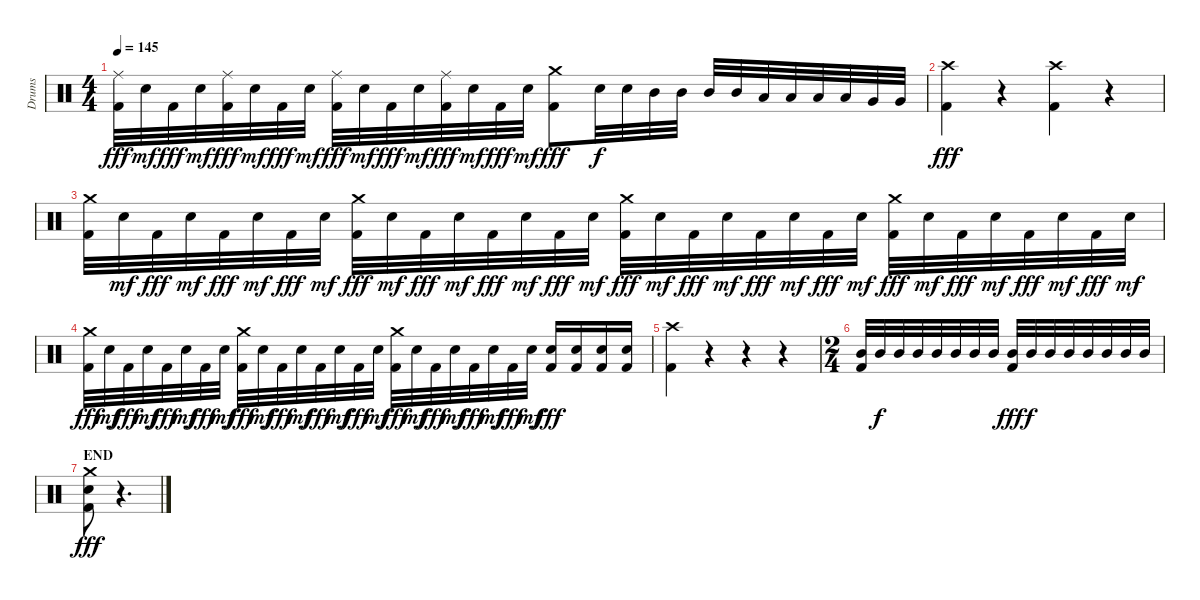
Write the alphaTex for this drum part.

\track ("Drums" "Drums") {instrument percussion}
\staff {score}
\articulation defaults
\ts (4 4)
\tempo 145
\clef neutral
\ks c
("Ride (middle)" "Kick (hit) 2").32{dy fff} "Electric Snare (hit)".32{dy mf} "Kick (hit) 2".32{dy fff} "Electric Snare (hit)".32{dy mf} ("Ride (middle)" "Kick (hit) 2").32{dy fff} "Electric Snare (hit)".32{dy mf} "Kick (hit) 2".32{dy fff} "Electric Snare (hit)".32{dy mf} ("Ride (middle)" "Kick (hit) 2").32{dy fff} "Electric Snare (hit)".32{dy mf} "Kick (hit) 2".32{dy fff} "Electric Snare (hit)".32{dy mf} ("Ride (middle)" "Kick (hit) 2").32{dy fff} "Electric Snare (hit)".32{dy mf} "Kick (hit) 2".32{dy fff} "Electric Snare (hit)".32{dy mf} ("Crash medium (hit)" "Kick (hit) 2").8{dy fff} "Electric Snare (hit)".32{dy f} "Electric Snare (hit)".32 "Mid Tom (hit)".32 "Mid Tom (hit)".32 "Mid Tom (hit)".32 "Mid Tom (hit)".32 "Low Tom (hit)".32 "Low Tom (hit)".32 "Low Tom (hit)".32 "Low Tom (hit)".32 "Very Low Tom (hit)".32 "Very Low Tom (hit)".32 |
("Crash high (hit)" "Kick (hit) 2").4{dy fff} r.4 ("Crash high (hit)" "Kick (hit) 2").4 r.4 |
("Crash medium (hit)" "Kick (hit) 2").32 "Electric Snare (hit)".32{dy mf} "Kick (hit) 2".32{dy fff} "Electric Snare (hit)".32{dy mf} "Kick (hit) 2".32{dy fff} "Electric Snare (hit)".32{dy mf} "Kick (hit) 2".32{dy fff} "Electric Snare (hit)".32{dy mf} ("Crash medium (hit)" "Kick (hit) 2").32{dy fff} "Electric Snare (hit)".32{dy mf} "Kick (hit) 2".32{dy fff} "Electric Snare (hit)".32{dy mf} "Kick (hit) 2".32{dy fff} "Electric Snare (hit)".32{dy mf} "Kick (hit) 2".32{dy fff} "Electric Snare (hit)".32{dy mf} ("Crash medium (hit)" "Kick (hit) 2").32{dy fff} "Electric Snare (hit)".32{dy mf} "Kick (hit) 2".32{dy fff} "Electric Snare (hit)".32{dy mf} "Kick (hit) 2".32{dy fff} "Electric Snare (hit)".32{dy mf} "Kick (hit) 2".32{dy fff} "Electric Snare (hit)".32{dy mf} ("Crash medium (hit)" "Kick (hit) 2").32{dy fff} "Electric Snare (hit)".32{dy mf} "Kick (hit) 2".32{dy fff} "Electric Snare (hit)".32{dy mf} "Kick (hit) 2".32{dy fff} "Electric Snare (hit)".32{dy mf} "Kick (hit) 2".32{dy fff} "Electric Snare (hit)".32{dy mf} |
("Crash medium (hit)" "Kick (hit) 2").32{dy fff} "Electric Snare (hit)".32{dy mf} "Kick (hit) 2".32{dy fff} "Electric Snare (hit)".32{dy mf} "Kick (hit) 2".32{dy fff} "Electric Snare (hit)".32{dy mf} "Kick (hit) 2".32{dy fff} "Electric Snare (hit)".32{dy mf} ("Crash medium (hit)" "Kick (hit) 2").32{dy fff} "Electric Snare (hit)".32{dy mf} "Kick (hit) 2".32{dy fff} "Electric Snare (hit)".32{dy mf} "Kick (hit) 2".32{dy fff} "Electric Snare (hit)".32{dy mf} "Kick (hit) 2".32{dy fff} "Electric Snare (hit)".32{dy mf} ("Crash medium (hit)" "Kick (hit) 2").32{dy fff} "Electric Snare (hit)".32{dy mf} "Kick (hit) 2".32{dy fff} "Electric Snare (hit)".32{dy mf} "Kick (hit) 2".32{dy fff} "Electric Snare (hit)".32{dy mf} "Kick (hit) 2".32{dy fff} "Electric Snare (hit)".32{dy mf} ("Electric Snare (hit)" "Kick (hit) 2").16{dy fff} ("Electric Snare (hit)" "Kick (hit) 2").16 ("Electric Snare (hit)" "Kick (hit) 2").16 ("Electric Snare (hit)" "Kick (hit) 2").16 |
("Crash high (hit)" "Kick (hit) 2").4 r.4 r.4 r.4 |
\ts (2 4)
("Mid Tom (hit)" "Kick (hit) 2").32 "Mid Tom (hit)".32{dy f} "Mid Tom (hit)".32 "Mid Tom (hit)".32 "Mid Tom (hit)".32 "Mid Tom (hit)".32 "Mid Tom (hit)".32 "Mid Tom (hit)".32 ("Mid Tom (hit)" "Kick (hit) 2").32{dy fff} "Mid Tom (hit)".32{dy f} "Mid Tom (hit)".32 "Mid Tom (hit)".32 "Mid Tom (hit)".32 "Mid Tom (hit)".32 "Mid Tom (hit)".32 "Mid Tom (hit)".32 |
\section ("" "END")
("Crash medium (hit)" "Electric Snare (hit)" "Kick (hit) 2").8{dy fff} r.4{d}
